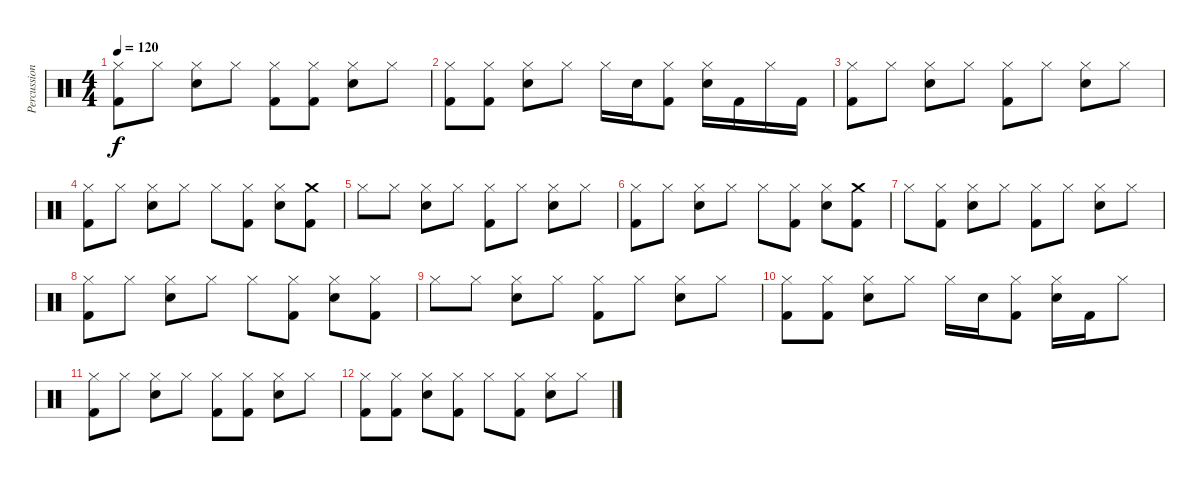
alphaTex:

\track ("Percussions" "Percussion") {instrument percussion}
\staff {score}
\articulation defaults
\ts (4 4)
\tempo 120
\clef neutral
\ks c
("Hi-Hat (closed)" "Kick (hit) 2").8{dy f} "Hi-Hat (closed)".8 ("Hi-Hat (closed)" "Snare (hit) 2").8 "Hi-Hat (closed)".8 ("Hi-Hat (closed)" "Kick (hit) 2").8 ("Hi-Hat (closed)" "Kick (hit) 2").8 ("Hi-Hat (closed)" "Snare (hit) 2").8 "Hi-Hat (closed)".8 |
("Hi-Hat (closed)" "Kick (hit) 2").8 ("Hi-Hat (closed)" "Kick (hit) 2").8 ("Hi-Hat (closed)" "Snare (hit) 2").8 "Hi-Hat (closed)".8 "Hi-Hat (closed)".16 "Snare (hit) 2".16 ("Hi-Hat (closed)" "Kick (hit) 2").8 ("Hi-Hat (closed)" "Snare (hit) 2").16 "Kick (hit) 2".16 "Hi-Hat (closed)".16 "Kick (hit) 2".16 |
("Hi-Hat (closed)" "Kick (hit) 2").8 "Hi-Hat (closed)".8 ("Hi-Hat (closed)" "Snare (hit) 2").8 "Hi-Hat (closed)".8 ("Hi-Hat (closed)" "Kick (hit) 2").8 "Hi-Hat (closed)".8 ("Hi-Hat (closed)" "Snare (hit) 2").8 "Hi-Hat (closed)".8 |
("Hi-Hat (closed)" "Kick (hit) 2").8 "Hi-Hat (closed)".8 ("Hi-Hat (closed)" "Snare (hit) 2").8 "Hi-Hat (closed)".8 "Hi-Hat (closed)".8 ("Hi-Hat (closed)" "Kick (hit) 2").8 ("Hi-Hat (closed)" "Snare (hit) 2").8 ("Crash medium (hit)" "Kick (hit) 2").8 |
"Hi-Hat (closed)".8 "Hi-Hat (closed)".8 ("Hi-Hat (closed)" "Snare (hit) 2").8 "Hi-Hat (closed)".8 ("Hi-Hat (closed)" "Kick (hit) 2").8 "Hi-Hat (closed)".8 ("Hi-Hat (closed)" "Snare (hit) 2").8 "Hi-Hat (closed)".8 |
("Hi-Hat (closed)" "Kick (hit) 2").8 "Hi-Hat (closed)".8 ("Hi-Hat (closed)" "Snare (hit) 2").8 "Hi-Hat (closed)".8 "Hi-Hat (closed)".8 ("Hi-Hat (closed)" "Kick (hit) 2").8 ("Hi-Hat (closed)" "Snare (hit) 2").8 ("Crash medium (hit)" "Kick (hit) 2").8 |
"Hi-Hat (closed)".8 ("Hi-Hat (closed)" "Kick (hit) 2").8 ("Hi-Hat (closed)" "Snare (hit) 2").8 "Hi-Hat (closed)".8 ("Hi-Hat (closed)" "Kick (hit) 2").8 "Hi-Hat (closed)".8 ("Hi-Hat (closed)" "Snare (hit) 2").8 "Hi-Hat (closed)".8 |
("Hi-Hat (closed)" "Kick (hit) 2").8 "Hi-Hat (closed)".8 ("Hi-Hat (closed)" "Snare (hit) 2").8 "Hi-Hat (closed)".8 "Hi-Hat (closed)".8 ("Hi-Hat (closed)" "Kick (hit) 2").8 ("Hi-Hat (closed)" "Snare (hit) 2").8 ("Hi-Hat (closed)" "Kick (hit) 2").8 |
"Hi-Hat (closed)".8{volume 8} "Hi-Hat (closed)".8 ("Hi-Hat (closed)" "Snare (hit) 2").8 "Hi-Hat (closed)".8 ("Hi-Hat (closed)" "Kick (hit) 2").8 "Hi-Hat (closed)".8 ("Hi-Hat (closed)" "Snare (hit) 2").8 "Hi-Hat (closed)".8 |
("Hi-Hat (closed)" "Kick (hit) 2").8 ("Hi-Hat (closed)" "Kick (hit) 2").8 ("Hi-Hat (closed)" "Snare (hit) 2").8 "Hi-Hat (closed)".8 "Hi-Hat (closed)".16 "Snare (hit) 2".16 ("Hi-Hat (closed)" "Kick (hit) 2").8 ("Hi-Hat (closed)" "Snare (hit) 2").16 "Kick (hit) 2".16 "Hi-Hat (closed)".8 |
("Hi-Hat (closed)" "Kick (hit) 2").8{volume 0} "Hi-Hat (closed)".8 ("Hi-Hat (closed)" "Snare (hit) 2").8 "Hi-Hat (closed)".8 ("Hi-Hat (closed)" "Kick (hit) 2").8 ("Hi-Hat (closed)" "Kick (hit) 2").8 ("Hi-Hat (closed)" "Snare (hit) 2").8 "Hi-Hat (closed)".8 |
("Hi-Hat (closed)" "Kick (hit) 2").8 ("Hi-Hat (closed)" "Kick (hit) 2").8 ("Hi-Hat (closed)" "Snare (hit) 2").8 ("Hi-Hat (closed)" "Kick (hit) 2").8 "Hi-Hat (closed)".8 ("Hi-Hat (closed)" "Kick (hit) 2").8 ("Hi-Hat (closed)" "Snare (hit) 2").8 "Hi-Hat (closed)".8
